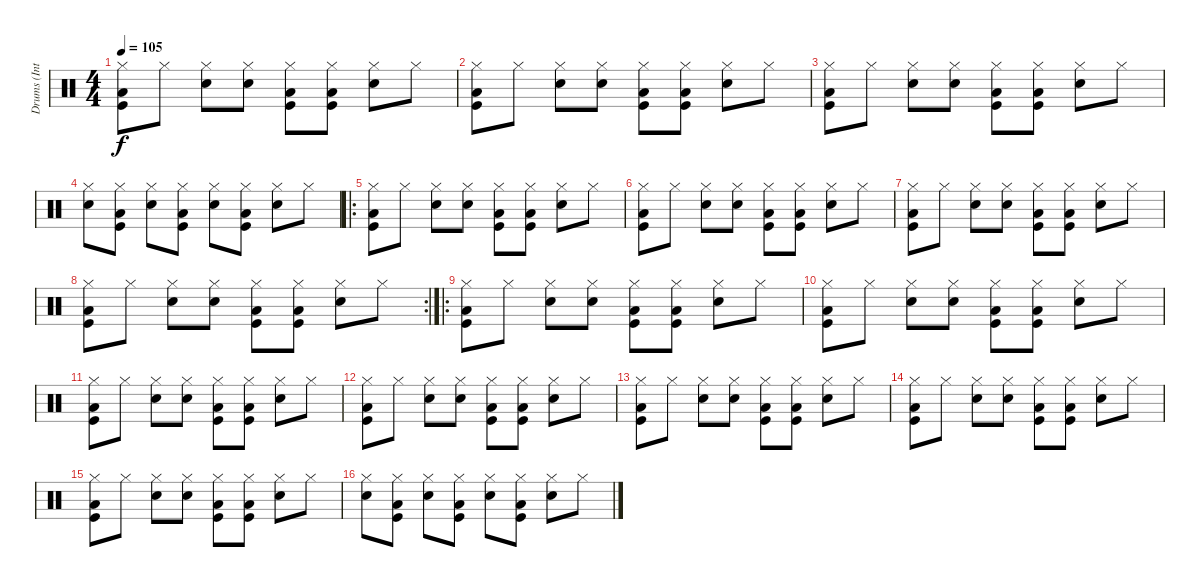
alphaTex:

\track ("Drums (Intro)" "Drums (Int") {instrument percussion}
\staff {score}
\articulation defaults
\ts (4 4)
\tempo 105
\clef neutral
\ks c
("Hi-Hat (closed)" "Low Floor Tom (hit)" "Kick (hit)").8{dy f} "Hi-Hat (closed)".8 ("Hi-Hat (closed)" "Snare (hit) 2").8 ("Hi-Hat (closed)" "Snare (hit) 2").8 ("Hi-Hat (closed)" "Low Floor Tom (hit)" "Kick (hit)").8 ("Hi-Hat (closed)" "Low Floor Tom (hit)" "Kick (hit)").8 ("Hi-Hat (closed)" "Snare (hit) 2").8 "Hi-Hat (closed)".8 |
("Hi-Hat (closed)" "Low Floor Tom (hit)" "Kick (hit)").8 "Hi-Hat (closed)".8 ("Hi-Hat (closed)" "Snare (hit) 2").8 ("Hi-Hat (closed)" "Snare (hit) 2").8 ("Hi-Hat (closed)" "Low Floor Tom (hit)" "Kick (hit)").8 ("Hi-Hat (closed)" "Low Floor Tom (hit)" "Kick (hit)").8 ("Hi-Hat (closed)" "Snare (hit) 2").8 "Hi-Hat (closed)".8 |
("Hi-Hat (closed)" "Low Floor Tom (hit)" "Kick (hit)").8 "Hi-Hat (closed)".8 ("Hi-Hat (closed)" "Snare (hit) 2").8 ("Hi-Hat (closed)" "Snare (hit) 2").8 ("Hi-Hat (closed)" "Low Floor Tom (hit)" "Kick (hit)").8 ("Hi-Hat (closed)" "Low Floor Tom (hit)" "Kick (hit)").8 ("Hi-Hat (closed)" "Snare (hit) 2").8 "Hi-Hat (closed)".8 |
("Hi-Hat (closed)" "Snare (hit) 2").8 ("Hi-Hat (closed)" "Low Floor Tom (hit)" "Kick (hit)").8 ("Hi-Hat (closed)" "Snare (hit) 2").8 ("Hi-Hat (closed)" "Low Floor Tom (hit)" "Kick (hit)").8 ("Hi-Hat (closed)" "Snare (hit) 2").8 ("Hi-Hat (closed)" "Low Floor Tom (hit)" "Kick (hit)").8 ("Hi-Hat (closed)" "Snare (hit) 2").8 "Hi-Hat (closed)".8 |
\ro
("Hi-Hat (closed)" "Low Floor Tom (hit)" "Kick (hit)").8 "Hi-Hat (closed)".8 ("Hi-Hat (closed)" "Snare (hit) 2").8 ("Hi-Hat (closed)" "Snare (hit) 2").8 ("Hi-Hat (closed)" "Low Floor Tom (hit)" "Kick (hit)").8 ("Hi-Hat (closed)" "Low Floor Tom (hit)" "Kick (hit)").8 ("Hi-Hat (closed)" "Snare (hit) 2").8 "Hi-Hat (closed)".8 |
("Hi-Hat (closed)" "Low Floor Tom (hit)" "Kick (hit)").8 "Hi-Hat (closed)".8 ("Hi-Hat (closed)" "Snare (hit) 2").8 ("Hi-Hat (closed)" "Snare (hit) 2").8 ("Hi-Hat (closed)" "Low Floor Tom (hit)" "Kick (hit)").8 ("Hi-Hat (closed)" "Low Floor Tom (hit)" "Kick (hit)").8 ("Hi-Hat (closed)" "Snare (hit) 2").8 "Hi-Hat (closed)".8 |
("Hi-Hat (closed)" "Low Floor Tom (hit)" "Kick (hit)").8 "Hi-Hat (closed)".8 ("Hi-Hat (closed)" "Snare (hit) 2").8 ("Hi-Hat (closed)" "Snare (hit) 2").8 ("Hi-Hat (closed)" "Low Floor Tom (hit)" "Kick (hit)").8 ("Hi-Hat (closed)" "Low Floor Tom (hit)" "Kick (hit)").8 ("Hi-Hat (closed)" "Snare (hit) 2").8 "Hi-Hat (closed)".8 |
\rc 2
("Hi-Hat (closed)" "Low Floor Tom (hit)" "Kick (hit)").8 "Hi-Hat (closed)".8 ("Hi-Hat (closed)" "Snare (hit) 2").8 ("Hi-Hat (closed)" "Snare (hit) 2").8 ("Hi-Hat (closed)" "Low Floor Tom (hit)" "Kick (hit)").8 ("Hi-Hat (closed)" "Low Floor Tom (hit)" "Kick (hit)").8 ("Hi-Hat (closed)" "Snare (hit) 2").8 "Hi-Hat (closed)".8 |
\ro
("Hi-Hat (closed)" "Low Floor Tom (hit)" "Kick (hit)").8 "Hi-Hat (closed)".8 ("Hi-Hat (closed)" "Snare (hit) 2").8 ("Hi-Hat (closed)" "Snare (hit) 2").8 ("Hi-Hat (closed)" "Low Floor Tom (hit)" "Kick (hit)").8 ("Hi-Hat (closed)" "Low Floor Tom (hit)" "Kick (hit)").8 ("Hi-Hat (closed)" "Snare (hit) 2").8 "Hi-Hat (closed)".8 |
("Hi-Hat (closed)" "Low Floor Tom (hit)" "Kick (hit)").8 "Hi-Hat (closed)".8 ("Hi-Hat (closed)" "Snare (hit) 2").8 ("Hi-Hat (closed)" "Snare (hit) 2").8 ("Hi-Hat (closed)" "Low Floor Tom (hit)" "Kick (hit)").8 ("Hi-Hat (closed)" "Low Floor Tom (hit)" "Kick (hit)").8 ("Hi-Hat (closed)" "Snare (hit) 2").8 "Hi-Hat (closed)".8 |
("Hi-Hat (closed)" "Low Floor Tom (hit)" "Kick (hit)").8 "Hi-Hat (closed)".8 ("Hi-Hat (closed)" "Snare (hit) 2").8 ("Hi-Hat (closed)" "Snare (hit) 2").8 ("Hi-Hat (closed)" "Low Floor Tom (hit)" "Kick (hit)").8 ("Hi-Hat (closed)" "Low Floor Tom (hit)" "Kick (hit)").8 ("Hi-Hat (closed)" "Snare (hit) 2").8 "Hi-Hat (closed)".8 |
("Hi-Hat (closed)" "Low Floor Tom (hit)" "Kick (hit)").8 "Hi-Hat (closed)".8 ("Hi-Hat (closed)" "Snare (hit) 2").8 ("Hi-Hat (closed)" "Snare (hit) 2").8 ("Hi-Hat (closed)" "Low Floor Tom (hit)" "Kick (hit)").8 ("Hi-Hat (closed)" "Low Floor Tom (hit)" "Kick (hit)").8 ("Hi-Hat (closed)" "Snare (hit) 2").8 "Hi-Hat (closed)".8 |
("Hi-Hat (closed)" "Low Floor Tom (hit)" "Kick (hit)").8 "Hi-Hat (closed)".8 ("Hi-Hat (closed)" "Snare (hit) 2").8 ("Hi-Hat (closed)" "Snare (hit) 2").8 ("Hi-Hat (closed)" "Low Floor Tom (hit)" "Kick (hit)").8 ("Hi-Hat (closed)" "Low Floor Tom (hit)" "Kick (hit)").8 ("Hi-Hat (closed)" "Snare (hit) 2").8 "Hi-Hat (closed)".8 |
("Hi-Hat (closed)" "Low Floor Tom (hit)" "Kick (hit)").8 "Hi-Hat (closed)".8 ("Hi-Hat (closed)" "Snare (hit) 2").8 ("Hi-Hat (closed)" "Snare (hit) 2").8 ("Hi-Hat (closed)" "Low Floor Tom (hit)" "Kick (hit)").8 ("Hi-Hat (closed)" "Low Floor Tom (hit)" "Kick (hit)").8 ("Hi-Hat (closed)" "Snare (hit) 2").8 "Hi-Hat (closed)".8 |
("Hi-Hat (closed)" "Low Floor Tom (hit)" "Kick (hit)").8 "Hi-Hat (closed)".8 ("Hi-Hat (closed)" "Snare (hit) 2").8 ("Hi-Hat (closed)" "Snare (hit) 2").8 ("Hi-Hat (closed)" "Low Floor Tom (hit)" "Kick (hit)").8 ("Hi-Hat (closed)" "Low Floor Tom (hit)" "Kick (hit)").8 ("Hi-Hat (closed)" "Snare (hit) 2").8 "Hi-Hat (closed)".8 |
("Hi-Hat (closed)" "Snare (hit) 2").8 ("Hi-Hat (closed)" "Low Floor Tom (hit)" "Kick (hit)").8 ("Hi-Hat (closed)" "Snare (hit) 2").8 ("Hi-Hat (closed)" "Low Floor Tom (hit)" "Kick (hit)").8 ("Hi-Hat (closed)" "Snare (hit) 2").8 ("Hi-Hat (closed)" "Low Floor Tom (hit)" "Kick (hit)").8 ("Hi-Hat (closed)" "Snare (hit) 2").8 "Hi-Hat (closed)".8
